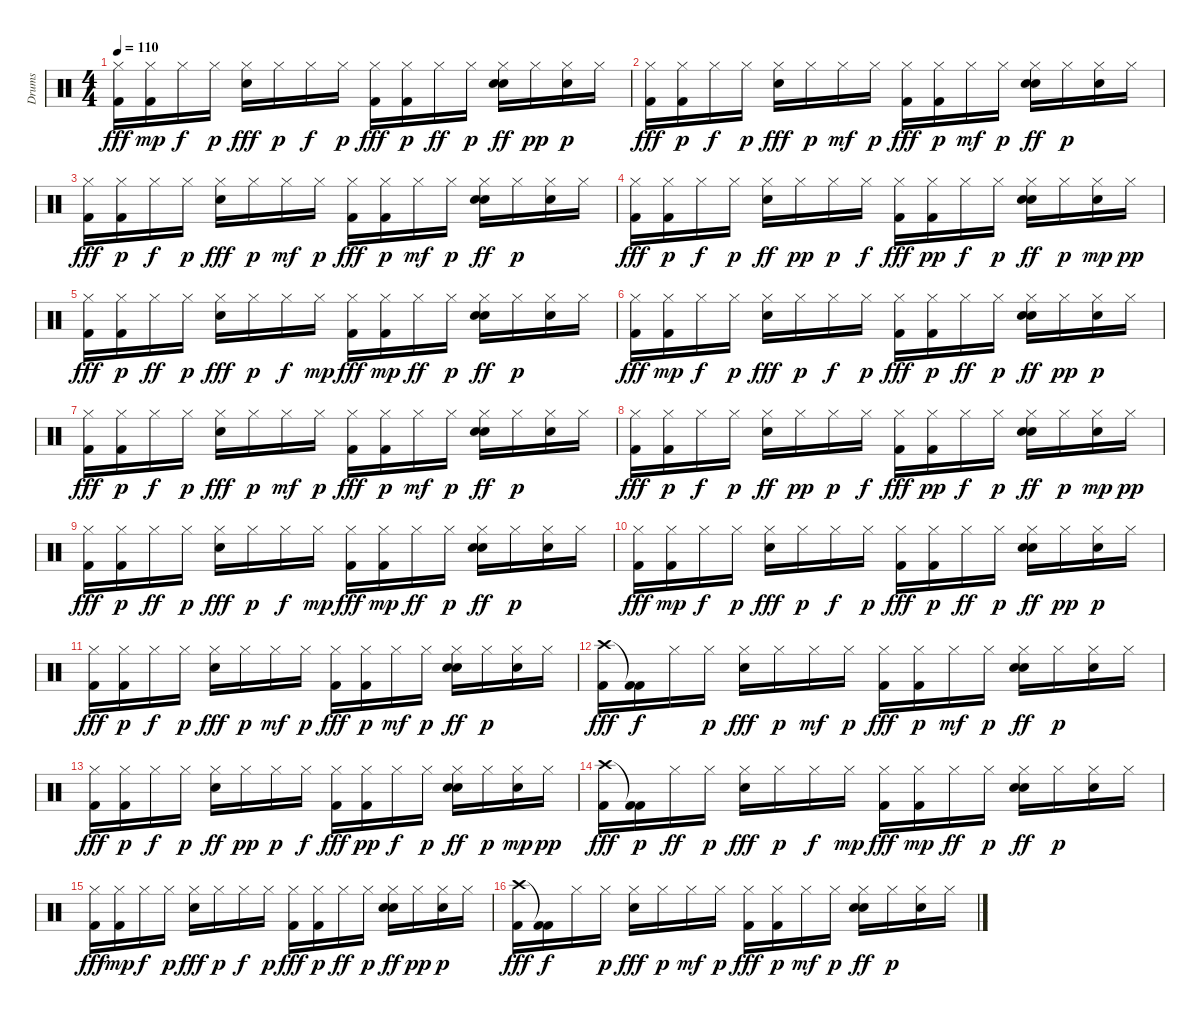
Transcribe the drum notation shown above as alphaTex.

\track ("Drums" "Drums") {instrument percussion}
\staff {score}
\articulation defaults
\ts (4 4)
\tempo 110
\clef neutral
\ks c
("Hi-Hat (closed)" "Kick (hit) 2").16{dy fff} ("Hi-Hat (closed)" "Kick (hit) 2").16{dy mp} "Hi-Hat (closed)".16{dy f} "Hi-Hat (closed)".16{dy p} ("Hi-Hat (closed)" "Snare (hit) 2").16{dy fff} "Hi-Hat (closed)".16{dy p} "Hi-Hat (closed)".16{dy f} "Hi-Hat (closed)".16{dy p} ("Hi-Hat (closed)" "Kick (hit) 2").16{dy fff} ("Hi-Hat (closed)" "Kick (hit) 2").16{dy p} "Hi-Hat (closed)".16{dy ff} "Hi-Hat (closed)".16{dy p} ("Hi-Hat (closed)" "Snare (hit) 2" "Hand Clap (hit)").16{dy ff} "Hi-Hat (closed)".16{dy pp} ("Hi-Hat (closed)" "Hand Clap (hit)").16{dy p} "Hi-Hat (closed)".16 |
("Hi-Hat (closed)" "Kick (hit) 2").16{dy fff} ("Hi-Hat (closed)" "Kick (hit) 2").16{dy p} "Hi-Hat (closed)".16{dy f} "Hi-Hat (closed)".16{dy p} ("Hi-Hat (closed)" "Snare (hit) 2").16{dy fff} "Hi-Hat (closed)".16{dy p} "Hi-Hat (closed)".16{dy mf} "Hi-Hat (closed)".16{dy p} ("Hi-Hat (closed)" "Kick (hit) 2").16{dy fff} ("Hi-Hat (closed)" "Kick (hit) 2").16{dy p} "Hi-Hat (closed)".16{dy mf} "Hi-Hat (closed)".16{dy p} ("Hi-Hat (closed)" "Snare (hit) 2" "Hand Clap (hit)").16{dy ff} "Hi-Hat (closed)".16{dy p} ("Hi-Hat (closed)" "Hand Clap (hit)").16 "Hi-Hat (closed)".16 |
("Hi-Hat (closed)" "Kick (hit) 2").16{dy fff} ("Hi-Hat (closed)" "Kick (hit) 2").16{dy p} "Hi-Hat (closed)".16{dy f} "Hi-Hat (closed)".16{dy p} ("Hi-Hat (closed)" "Snare (hit) 2").16{dy fff} "Hi-Hat (closed)".16{dy p} "Hi-Hat (closed)".16{dy mf} "Hi-Hat (closed)".16{dy p} ("Hi-Hat (closed)" "Kick (hit) 2").16{dy fff} ("Hi-Hat (closed)" "Kick (hit) 2").16{dy p} "Hi-Hat (closed)".16{dy mf} "Hi-Hat (closed)".16{dy p} ("Hi-Hat (closed)" "Snare (hit) 2" "Hand Clap (hit)").16{dy ff} "Hi-Hat (closed)".16{dy p} ("Hi-Hat (closed)" "Hand Clap (hit)").16 "Hi-Hat (closed)".16 |
("Hi-Hat (closed)" "Kick (hit) 2").16{dy fff} ("Hi-Hat (closed)" "Kick (hit) 2").16{dy p} "Hi-Hat (closed)".16{dy f} "Hi-Hat (closed)".16{dy p} ("Hi-Hat (closed)" "Snare (hit) 2").16{dy ff} "Hi-Hat (closed)".16{dy pp} "Hi-Hat (closed)".16{dy p} "Hi-Hat (closed)".16{dy f} ("Hi-Hat (closed)" "Kick (hit) 2").16{dy fff} ("Hi-Hat (closed)" "Kick (hit) 2").16{dy pp} "Hi-Hat (closed)".16{dy f} "Hi-Hat (closed)".16{dy p} ("Hi-Hat (closed)" "Snare (hit) 2" "Hand Clap (hit)").16{dy ff} "Hi-Hat (closed)".16{dy p} ("Hi-Hat (closed)" "Hand Clap (hit)").16{dy mp} "Hi-Hat (closed)".16{dy pp} |
("Hi-Hat (closed)" "Kick (hit) 2").16{dy fff} ("Hi-Hat (closed)" "Kick (hit) 2").16{dy p} "Hi-Hat (closed)".16{dy ff} "Hi-Hat (closed)".16{dy p} ("Hi-Hat (closed)" "Snare (hit) 2").16{dy fff} "Hi-Hat (closed)".16{dy p} "Hi-Hat (closed)".16{dy f} "Hi-Hat (closed)".16{dy mp} ("Hi-Hat (closed)" "Kick (hit) 2").16{dy fff} ("Hi-Hat (closed)" "Kick (hit) 2").16{dy mp} "Hi-Hat (closed)".16{dy ff} "Hi-Hat (closed)".16{dy p} ("Hi-Hat (closed)" "Snare (hit) 2" "Hand Clap (hit)").16{dy ff} "Hi-Hat (closed)".16{dy p} ("Hi-Hat (closed)" "Hand Clap (hit)").16 "Hi-Hat (closed)".16 |
("Hi-Hat (closed)" "Kick (hit) 2").16{dy fff} ("Hi-Hat (closed)" "Kick (hit) 2").16{dy mp} "Hi-Hat (closed)".16{dy f} "Hi-Hat (closed)".16{dy p} ("Hi-Hat (closed)" "Snare (hit) 2").16{dy fff} "Hi-Hat (closed)".16{dy p} "Hi-Hat (closed)".16{dy f} "Hi-Hat (closed)".16{dy p} ("Hi-Hat (closed)" "Kick (hit) 2").16{dy fff} ("Hi-Hat (closed)" "Kick (hit) 2").16{dy p} "Hi-Hat (closed)".16{dy ff} "Hi-Hat (closed)".16{dy p} ("Hi-Hat (closed)" "Snare (hit) 2" "Hand Clap (hit)").16{dy ff} "Hi-Hat (closed)".16{dy pp} ("Hi-Hat (closed)" "Hand Clap (hit)").16{dy p} "Hi-Hat (closed)".16 |
("Hi-Hat (closed)" "Kick (hit) 2").16{dy fff} ("Hi-Hat (closed)" "Kick (hit) 2").16{dy p} "Hi-Hat (closed)".16{dy f} "Hi-Hat (closed)".16{dy p} ("Hi-Hat (closed)" "Snare (hit) 2").16{dy fff} "Hi-Hat (closed)".16{dy p} "Hi-Hat (closed)".16{dy mf} "Hi-Hat (closed)".16{dy p} ("Hi-Hat (closed)" "Kick (hit) 2").16{dy fff} ("Hi-Hat (closed)" "Kick (hit) 2").16{dy p} "Hi-Hat (closed)".16{dy mf} "Hi-Hat (closed)".16{dy p} ("Hi-Hat (closed)" "Snare (hit) 2" "Hand Clap (hit)").16{dy ff} "Hi-Hat (closed)".16{dy p} ("Hi-Hat (closed)" "Hand Clap (hit)").16 "Hi-Hat (closed)".16 |
("Hi-Hat (closed)" "Kick (hit) 2").16{dy fff} ("Hi-Hat (closed)" "Kick (hit) 2").16{dy p} "Hi-Hat (closed)".16{dy f} "Hi-Hat (closed)".16{dy p} ("Hi-Hat (closed)" "Snare (hit) 2").16{dy ff} "Hi-Hat (closed)".16{dy pp} "Hi-Hat (closed)".16{dy p} "Hi-Hat (closed)".16{dy f} ("Hi-Hat (closed)" "Kick (hit) 2").16{dy fff} ("Hi-Hat (closed)" "Kick (hit) 2").16{dy pp} "Hi-Hat (closed)".16{dy f} "Hi-Hat (closed)".16{dy p} ("Hi-Hat (closed)" "Snare (hit) 2" "Hand Clap (hit)").16{dy ff} "Hi-Hat (closed)".16{dy p} ("Hi-Hat (closed)" "Hand Clap (hit)").16{dy mp} "Hi-Hat (closed)".16{dy pp} |
("Hi-Hat (closed)" "Kick (hit) 2").16{dy fff} ("Hi-Hat (closed)" "Kick (hit) 2").16{dy p} "Hi-Hat (closed)".16{dy ff} "Hi-Hat (closed)".16{dy p} ("Hi-Hat (closed)" "Snare (hit) 2").16{dy fff} "Hi-Hat (closed)".16{dy p} "Hi-Hat (closed)".16{dy f} "Hi-Hat (closed)".16{dy mp} ("Hi-Hat (closed)" "Kick (hit) 2").16{dy fff} ("Hi-Hat (closed)" "Kick (hit) 2").16{dy mp} "Hi-Hat (closed)".16{dy ff} "Hi-Hat (closed)".16{dy p} ("Hi-Hat (closed)" "Snare (hit) 2" "Hand Clap (hit)").16{dy ff} "Hi-Hat (closed)".16{dy p} ("Hi-Hat (closed)" "Hand Clap (hit)").16 "Hi-Hat (closed)".16 |
("Hi-Hat (closed)" "Kick (hit) 2").16{dy fff} ("Hi-Hat (closed)" "Kick (hit) 2").16{dy mp} "Hi-Hat (closed)".16{dy f} "Hi-Hat (closed)".16{dy p} ("Hi-Hat (closed)" "Snare (hit) 2").16{dy fff} "Hi-Hat (closed)".16{dy p} "Hi-Hat (closed)".16{dy f} "Hi-Hat (closed)".16{dy p} ("Hi-Hat (closed)" "Kick (hit) 2").16{dy fff} ("Hi-Hat (closed)" "Kick (hit) 2").16{dy p} "Hi-Hat (closed)".16{dy ff} "Hi-Hat (closed)".16{dy p} ("Hi-Hat (closed)" "Snare (hit) 2" "Hand Clap (hit)").16{dy ff} "Hi-Hat (closed)".16{dy pp} ("Hi-Hat (closed)" "Hand Clap (hit)").16{dy p} "Hi-Hat (closed)".16 |
("Hi-Hat (closed)" "Kick (hit) 2").16{dy fff} ("Hi-Hat (closed)" "Kick (hit) 2").16{dy p} "Hi-Hat (closed)".16{dy f} "Hi-Hat (closed)".16{dy p} ("Hi-Hat (closed)" "Snare (hit) 2").16{dy fff} "Hi-Hat (closed)".16{dy p} "Hi-Hat (closed)".16{dy mf} "Hi-Hat (closed)".16{dy p} ("Hi-Hat (closed)" "Kick (hit) 2").16{dy fff} ("Hi-Hat (closed)" "Kick (hit) 2").16{dy p} "Hi-Hat (closed)".16{dy mf} "Hi-Hat (closed)".16{dy p} ("Hi-Hat (closed)" "Snare (hit) 2" "Hand Clap (hit)").16{dy ff} "Hi-Hat (closed)".16{dy p} ("Hi-Hat (closed)" "Hand Clap (hit)").16 "Hi-Hat (closed)".16 |
("Crash high (hit)" "Kick (hit) 2").16{dy fff} ("Kick (hit) 2"{t} "Kick (hit) 2").16{dy f} "Hi-Hat (closed)".16 "Hi-Hat (closed)".16{dy p} ("Hi-Hat (closed)" "Snare (hit) 2").16{dy fff} "Hi-Hat (closed)".16{dy p} "Hi-Hat (closed)".16{dy mf} "Hi-Hat (closed)".16{dy p} ("Hi-Hat (closed)" "Kick (hit) 2").16{dy fff} ("Hi-Hat (closed)" "Kick (hit) 2").16{dy p} "Hi-Hat (closed)".16{dy mf} "Hi-Hat (closed)".16{dy p} ("Hi-Hat (closed)" "Snare (hit) 2" "Hand Clap (hit)").16{dy ff} "Hi-Hat (closed)".16{dy p} ("Hi-Hat (closed)" "Hand Clap (hit)").16 "Hi-Hat (closed)".16 |
("Hi-Hat (closed)" "Kick (hit) 2").16{dy fff} ("Hi-Hat (closed)" "Kick (hit) 2").16{dy p} "Hi-Hat (closed)".16{dy f} "Hi-Hat (closed)".16{dy p} ("Hi-Hat (closed)" "Snare (hit) 2").16{dy ff} "Hi-Hat (closed)".16{dy pp} "Hi-Hat (closed)".16{dy p} "Hi-Hat (closed)".16{dy f} ("Hi-Hat (closed)" "Kick (hit) 2").16{dy fff} ("Hi-Hat (closed)" "Kick (hit) 2").16{dy pp} "Hi-Hat (closed)".16{dy f} "Hi-Hat (closed)".16{dy p} ("Hi-Hat (closed)" "Snare (hit) 2" "Hand Clap (hit)").16{dy ff} "Hi-Hat (closed)".16{dy p} ("Hi-Hat (closed)" "Hand Clap (hit)").16{dy mp} "Hi-Hat (closed)".16{dy pp} |
("Crash high (hit)" "Kick (hit) 2").16{dy fff} ("Kick (hit) 2"{t} "Kick (hit) 2").16{dy p} "Hi-Hat (closed)".16{dy ff} "Hi-Hat (closed)".16{dy p} ("Hi-Hat (closed)" "Snare (hit) 2").16{dy fff} "Hi-Hat (closed)".16{dy p} "Hi-Hat (closed)".16{dy f} "Hi-Hat (closed)".16{dy mp} ("Hi-Hat (closed)" "Kick (hit) 2").16{dy fff} ("Hi-Hat (closed)" "Kick (hit) 2").16{dy mp} "Hi-Hat (closed)".16{dy ff} "Hi-Hat (closed)".16{dy p} ("Hi-Hat (closed)" "Snare (hit) 2" "Hand Clap (hit)").16{dy ff} "Hi-Hat (closed)".16{dy p} ("Hi-Hat (closed)" "Hand Clap (hit)").16 "Hi-Hat (closed)".16 |
("Hi-Hat (closed)" "Kick (hit) 2").16{dy fff} ("Hi-Hat (closed)" "Kick (hit) 2").16{dy mp} "Hi-Hat (closed)".16{dy f} "Hi-Hat (closed)".16{dy p} ("Hi-Hat (closed)" "Snare (hit) 2").16{dy fff} "Hi-Hat (closed)".16{dy p} "Hi-Hat (closed)".16{dy f} "Hi-Hat (closed)".16{dy p} ("Hi-Hat (closed)" "Kick (hit) 2").16{dy fff} ("Hi-Hat (closed)" "Kick (hit) 2").16{dy p} "Hi-Hat (closed)".16{dy ff} "Hi-Hat (closed)".16{dy p} ("Hi-Hat (closed)" "Snare (hit) 2" "Hand Clap (hit)").16{dy ff} "Hi-Hat (closed)".16{dy pp} ("Hi-Hat (closed)" "Hand Clap (hit)").16{dy p} "Hi-Hat (closed)".16 |
("Crash high (hit)" "Kick (hit) 2").16{dy fff} ("Kick (hit) 2"{t} "Kick (hit) 2").16{dy f} "Hi-Hat (closed)".16 "Hi-Hat (closed)".16{dy p} ("Hi-Hat (closed)" "Snare (hit) 2").16{dy fff} "Hi-Hat (closed)".16{dy p} "Hi-Hat (closed)".16{dy mf} "Hi-Hat (closed)".16{dy p} ("Hi-Hat (closed)" "Kick (hit) 2").16{dy fff} ("Hi-Hat (closed)" "Kick (hit) 2").16{dy p} "Hi-Hat (closed)".16{dy mf} "Hi-Hat (closed)".16{dy p} ("Hi-Hat (closed)" "Snare (hit) 2" "Hand Clap (hit)").16{dy ff} "Hi-Hat (closed)".16{dy p} ("Hi-Hat (closed)" "Hand Clap (hit)").16 "Hi-Hat (closed)".16
